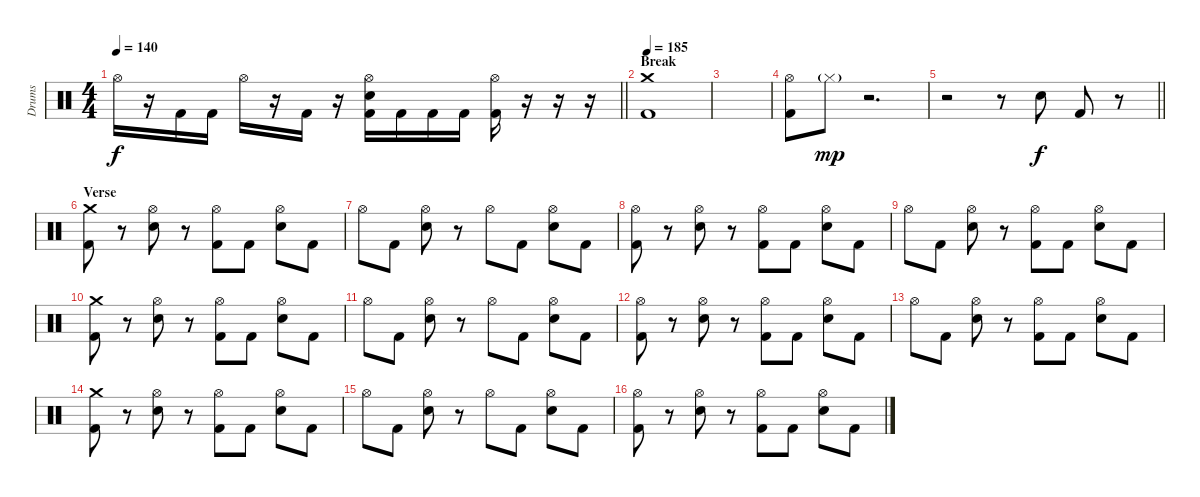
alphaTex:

\track ("Drums" "Drums") {instrument percussion}
\staff {score}
\articulation defaults
\ts (4 4)
\tempo 140
\clef neutral
\barLineRight lightlight
\ks c "Hi-Hat (open)".16{dy f}
r.16 "Kick (hit) 2".16 "Kick (hit) 2".16 "Hi-Hat (open)".16 r.16 "Kick (hit) 2".16 r.16 ("Hi-Hat (open)" "Electric Snare (hit)" "Kick (hit) 2").16 "Kick (hit) 2".16 "Kick (hit) 2".16 "Kick (hit) 2".16 ("Hi-Hat (open)" "Kick (hit) 2").16 r.16 r.16 r.16 |
\section ("" "Break")
\tempo 185
("Crash medium (hit)" "Kick (hit) 2").1 |
|
("Hi-Hat (open)" "Kick (hit) 2").8 "Hi-Hat (closed)"{g}.8{dy mp} r.2{d} |
\barLineRight lightlight
r.2 r.8 "Electric Snare (hit)".8{dy f} "Kick (hit) 2".8 r.8 |
\section ("" "Verse")
("Crash medium (hit)" "Kick (hit) 2").8 r.8 ("Hi-Hat (open)" "Electric Snare (hit)").8 r.8 ("Hi-Hat (open)" "Kick (hit) 2").8 "Kick (hit) 2".8 ("Hi-Hat (open)" "Electric Snare (hit)").8 "Kick (hit) 2".8 |
"Hi-Hat (open)".8 "Kick (hit) 2".8 ("Hi-Hat (open)" "Electric Snare (hit)").8 r.8 "Hi-Hat (open)".8 "Kick (hit) 2".8 ("Hi-Hat (open)" "Electric Snare (hit)").8 "Kick (hit) 2".8 |
("Hi-Hat (open)" "Kick (hit) 2").8 r.8 ("Hi-Hat (open)" "Electric Snare (hit)").8 r.8 ("Hi-Hat (open)" "Kick (hit) 2").8 "Kick (hit) 2".8 ("Hi-Hat (open)" "Electric Snare (hit)").8 "Kick (hit) 2".8 |
"Hi-Hat (open)".8 "Kick (hit) 2".8 ("Hi-Hat (open)" "Electric Snare (hit)").8 r.8 ("Hi-Hat (open)" "Kick (hit) 2").8 "Kick (hit) 2".8 ("Hi-Hat (open)" "Electric Snare (hit)").8 "Kick (hit) 2".8 |
("Crash medium (hit)" "Kick (hit) 2").8 r.8 ("Hi-Hat (open)" "Electric Snare (hit)").8 r.8 ("Hi-Hat (open)" "Kick (hit) 2").8 "Kick (hit) 2".8 ("Hi-Hat (open)" "Electric Snare (hit)").8 "Kick (hit) 2".8 |
"Hi-Hat (open)".8 "Kick (hit) 2".8 ("Hi-Hat (open)" "Electric Snare (hit)").8 r.8 "Hi-Hat (open)".8 "Kick (hit) 2".8 ("Hi-Hat (open)" "Electric Snare (hit)").8 "Kick (hit) 2".8 |
("Hi-Hat (open)" "Kick (hit) 2").8 r.8 ("Hi-Hat (open)" "Electric Snare (hit)").8 r.8 ("Hi-Hat (open)" "Kick (hit) 2").8 "Kick (hit) 2".8 ("Hi-Hat (open)" "Electric Snare (hit)").8 "Kick (hit) 2".8 |
"Hi-Hat (open)".8 "Kick (hit) 2".8 ("Hi-Hat (open)" "Electric Snare (hit)").8 r.8 ("Hi-Hat (open)" "Kick (hit) 2").8 "Kick (hit) 2".8 ("Hi-Hat (open)" "Electric Snare (hit)").8 "Kick (hit) 2".8 |
("Crash medium (hit)" "Kick (hit) 2").8 r.8 ("Hi-Hat (open)" "Electric Snare (hit)").8 r.8 ("Hi-Hat (open)" "Kick (hit) 2").8 "Kick (hit) 2".8 ("Hi-Hat (open)" "Electric Snare (hit)").8 "Kick (hit) 2".8 |
"Hi-Hat (open)".8 "Kick (hit) 2".8 ("Hi-Hat (open)" "Electric Snare (hit)").8 r.8 "Hi-Hat (open)".8 "Kick (hit) 2".8 ("Hi-Hat (open)" "Electric Snare (hit)").8 "Kick (hit) 2".8 |
("Hi-Hat (open)" "Kick (hit) 2").8 r.8 ("Hi-Hat (open)" "Electric Snare (hit)").8 r.8 ("Hi-Hat (open)" "Kick (hit) 2").8 "Kick (hit) 2".8 ("Hi-Hat (open)" "Electric Snare (hit)").8 "Kick (hit) 2".8
